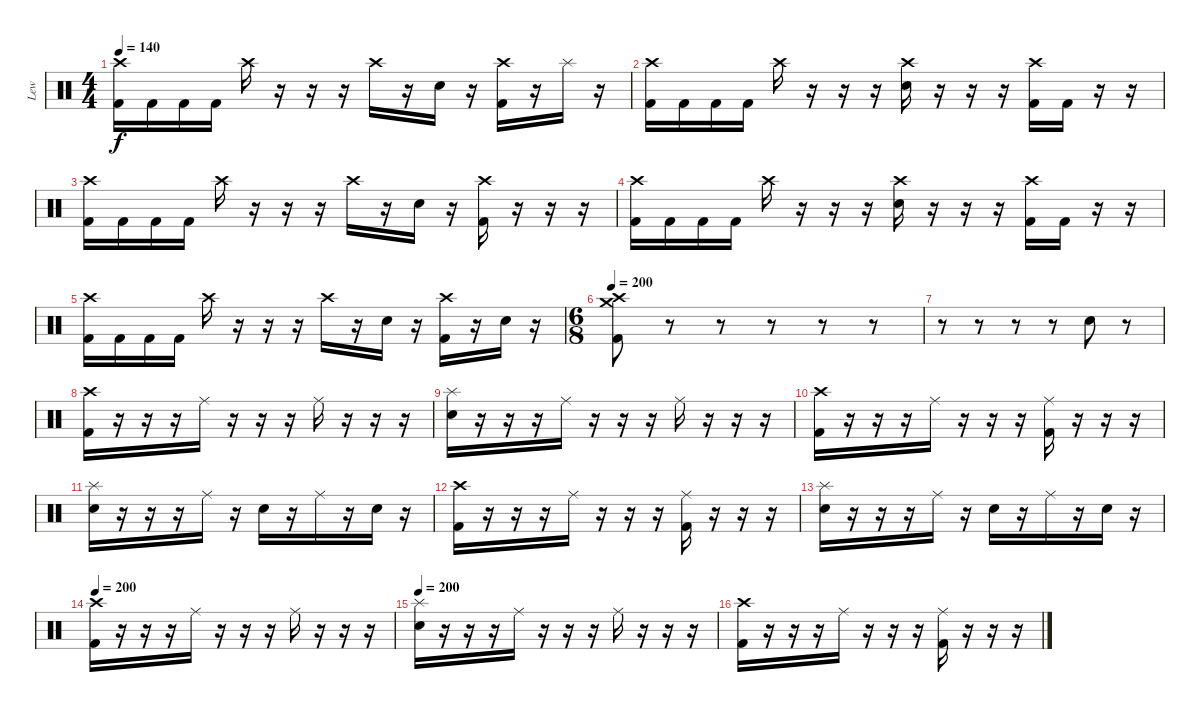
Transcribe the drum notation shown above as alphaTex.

\track ("Lew" "Lew") {instrument percussion}
\staff {score}
\articulation defaults
\ts (4 4)
\tempo 140
\clef neutral
\ks c
("Crash high (hit)" "Kick (hit) 2").16{dy f} "Kick (hit) 2".16 "Kick (hit) 2".16 "Kick (hit) 2".16 "Crash high (hit)".16 r.16 r.16 r.16 "Crash high (hit)".16 r.16 "Electric Snare (hit)".16 r.16 ("Crash high (hit)" "Kick (hit) 2").16 r.16 "Splash (hit)".16 r.16 |
("Crash high (hit)" "Kick (hit) 2").16 "Kick (hit) 2".16 "Kick (hit) 2".16 "Kick (hit) 2".16 "Crash high (hit)".16 r.16 r.16 r.16 ("Crash high (hit)" "Electric Snare (hit)").16 r.16 r.16 r.16 ("Crash high (hit)" "Kick (hit) 2").16 "Kick (hit) 2".16 r.16 r.16 |
("Crash high (hit)" "Kick (hit) 2").16 "Kick (hit) 2".16 "Kick (hit) 2".16 "Kick (hit) 2".16 "Crash high (hit)".16 r.16 r.16 r.16 "Crash high (hit)".16 r.16 "Electric Snare (hit)".16 r.16 ("Crash high (hit)" "Kick (hit) 2").16 r.16 r.16 r.16 |
("Crash high (hit)" "Kick (hit) 2").16 "Kick (hit) 2".16 "Kick (hit) 2".16 "Kick (hit) 2".16 "Crash high (hit)".16 r.16 r.16 r.16 ("Crash high (hit)" "Electric Snare (hit)").16 r.16 r.16 r.16 ("Crash high (hit)" "Kick (hit) 2").16 "Kick (hit) 2".16 r.16 r.16 |
("Crash high (hit)" "Kick (hit) 2").16 "Kick (hit) 2".16 "Kick (hit) 2".16 "Kick (hit) 2".16 "Crash high (hit)".16 r.16 r.16 r.16 "Crash high (hit)".16 r.16 "Electric Snare (hit)".16 r.16 ("Crash high (hit)" "Kick (hit) 2").16 r.16 "Electric Snare (hit)".16 r.16 |
\ts (6 8)
\tempo 200
("Crash medium (hit)" "Crash high (hit)" "Kick (hit) 2").8 r.8 r.8 r.8 r.8 r.8 |
r.8 r.8 r.8 r.8 "Electric Snare (hit)".8 r.8 |
("Crash high (hit)" "Kick (hit) 2").16 r.16 r.16 r.16 "Ride (middle)".16 r.16 r.16 r.16 "Ride (middle)".16 r.16 r.16 r.16 |
("Splash (hit)" "Electric Snare (hit)").16 r.16 r.16 r.16 "Ride (middle)".16 r.16 r.16 r.16 "Ride (middle)".16 r.16 r.16 r.16 |
("Crash high (hit)" "Kick (hit) 2").16 r.16 r.16 r.16 "Ride (middle)".16 r.16 r.16 r.16 ("Ride (middle)" "Kick (hit) 2").16 r.16 r.16 r.16 |
("Splash (hit)" "Electric Snare (hit)").16 r.16 r.16 r.16 "Ride (middle)".16 r.16 "Electric Snare (hit)".16 r.16 "Ride (middle)".16 r.16 "Electric Snare (hit)".16 r.16 |
("Crash high (hit)" "Kick (hit) 2").16 r.16 r.16 r.16 "Ride (middle)".16 r.16 r.16 r.16 ("Ride (middle)" "Kick (hit) 2").16 r.16 r.16 r.16 |
("Splash (hit)" "Electric Snare (hit)").16 r.16 r.16 r.16 "Ride (middle)".16 r.16 "Electric Snare (hit)".16 r.16 "Ride (middle)".16 r.16 "Electric Snare (hit)".16 r.16 |
\tempo 200
("Crash high (hit)" "Kick (hit) 2").16 r.16 r.16 r.16 "Ride (middle)".16 r.16 r.16 r.16 "Ride (middle)".16 r.16 r.16 r.16 |
\tempo 200
("Splash (hit)" "Electric Snare (hit)").16 r.16 r.16 r.16 "Ride (middle)".16 r.16 r.16 r.16 "Ride (middle)".16 r.16 r.16 r.16 |
("Crash high (hit)" "Kick (hit) 2").16 r.16 r.16 r.16 "Ride (middle)".16 r.16 r.16 r.16 ("Ride (middle)" "Kick (hit) 2").16 r.16 r.16 r.16
